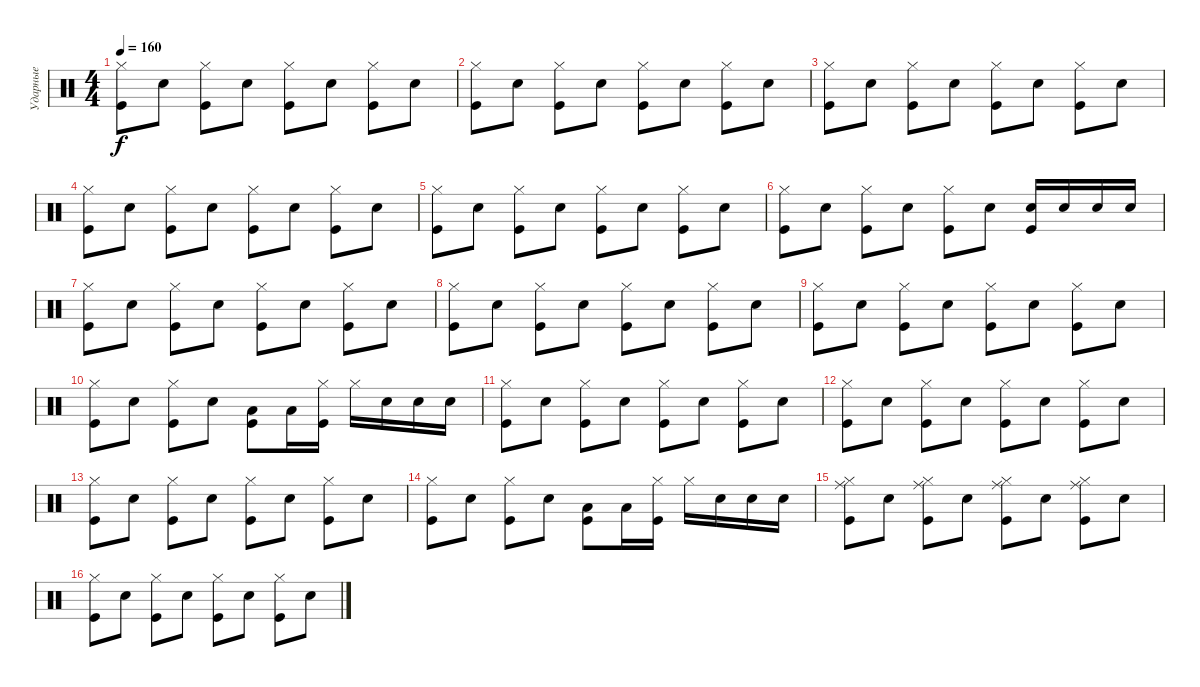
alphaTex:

\track ("Ударные" "Ударные") {instrument percussion}
\staff {score}
\articulation defaults
\ts (4 4)
\tempo 160
\clef neutral
\ks c
("Hi-Hat (closed)" "Kick (hit)").8{dy f} "Snare (hit) 2".8 ("Hi-Hat (closed)" "Kick (hit)").8 "Snare (hit) 2".8 ("Hi-Hat (closed)" "Kick (hit)").8 "Snare (hit) 2".8 ("Hi-Hat (closed)" "Kick (hit)").8 "Snare (hit) 2".8 |
("Hi-Hat (closed)" "Kick (hit)").8 "Snare (hit) 2".8 ("Hi-Hat (closed)" "Kick (hit)").8 "Snare (hit) 2".8 ("Hi-Hat (closed)" "Kick (hit)").8 "Snare (hit) 2".8 ("Hi-Hat (closed)" "Kick (hit)").8 "Snare (hit) 2".8 |
("Hi-Hat (closed)" "Kick (hit)").8 "Snare (hit) 2".8 ("Hi-Hat (closed)" "Kick (hit)").8 "Snare (hit) 2".8 ("Hi-Hat (closed)" "Kick (hit)").8 "Snare (hit) 2".8 ("Hi-Hat (closed)" "Kick (hit)").8 "Snare (hit) 2".8 |
("Hi-Hat (closed)" "Kick (hit)").8 "Snare (hit) 2".8 ("Hi-Hat (closed)" "Kick (hit)").8 "Snare (hit) 2".8 ("Hi-Hat (closed)" "Kick (hit)").8 "Snare (hit) 2".8 ("Hi-Hat (closed)" "Kick (hit)").8 "Snare (hit) 2".8 |
("Hi-Hat (closed)" "Kick (hit)").8 "Snare (hit) 2".8 ("Hi-Hat (closed)" "Kick (hit)").8 "Snare (hit) 2".8 ("Hi-Hat (closed)" "Kick (hit)").8 "Snare (hit) 2".8 ("Hi-Hat (closed)" "Kick (hit)").8 "Snare (hit) 2".8 |
("Hi-Hat (closed)" "Kick (hit)").8 "Snare (hit) 2".8 ("Hi-Hat (closed)" "Kick (hit)").8 "Snare (hit) 2".8 ("Hi-Hat (closed)" "Kick (hit)").8 "Snare (hit) 2".8 ("Electric Snare (hit)" "Kick (hit)").16 "Electric Snare (hit)".16 "Electric Snare (hit)".16 "Electric Snare (hit)".16 |
("Hi-Hat (closed)" "Kick (hit)").8 "Snare (hit) 2".8 ("Hi-Hat (closed)" "Kick (hit)").8 "Snare (hit) 2".8 ("Hi-Hat (closed)" "Kick (hit)").8 "Snare (hit) 2".8 ("Hi-Hat (closed)" "Kick (hit)").8 "Snare (hit) 2".8 |
("Hi-Hat (closed)" "Kick (hit)").8 "Snare (hit) 2".8 ("Hi-Hat (closed)" "Kick (hit)").8 "Snare (hit) 2".8 ("Hi-Hat (closed)" "Kick (hit)").8 "Snare (hit) 2".8 ("Hi-Hat (closed)" "Kick (hit)").8 "Snare (hit) 2".8 |
("Hi-Hat (closed)" "Kick (hit)").8 "Snare (hit) 2".8 ("Hi-Hat (closed)" "Kick (hit)").8 "Snare (hit) 2".8 ("Hi-Hat (closed)" "Kick (hit)").8 "Snare (hit) 2".8 ("Hi-Hat (closed)" "Kick (hit)").8 "Snare (hit) 2".8 |
("Hi-Hat (closed)" "Kick (hit)").8 "Snare (hit) 2".8 ("Hi-Hat (closed)" "Kick (hit)").8 "Snare (hit) 2".8 ("Low Tom (hit)" "Kick (hit)").8 "Low Tom (hit)".16 ("Hi-Hat (closed)" "Kick (hit)").16 "Hi-Hat (closed)".16 "Electric Snare (hit)".16 "Electric Snare (hit)".16 "Electric Snare (hit)".16 |
("Hi-Hat (closed)" "Kick (hit)").8 "Snare (hit) 2".8 ("Hi-Hat (closed)" "Kick (hit)").8 "Snare (hit) 2".8 ("Hi-Hat (closed)" "Kick (hit)").8 "Snare (hit) 2".8 ("Hi-Hat (closed)" "Kick (hit)").8 "Snare (hit) 2".8 |
("Hi-Hat (closed)" "Kick (hit)").8 "Snare (hit) 2".8 ("Hi-Hat (closed)" "Kick (hit)").8 "Snare (hit) 2".8 ("Hi-Hat (closed)" "Kick (hit)").8 "Snare (hit) 2".8 ("Hi-Hat (closed)" "Kick (hit)").8 "Snare (hit) 2".8 |
("Hi-Hat (closed)" "Kick (hit)").8 "Snare (hit) 2".8 ("Hi-Hat (closed)" "Kick (hit)").8 "Snare (hit) 2".8 ("Hi-Hat (closed)" "Kick (hit)").8 "Snare (hit) 2".8 ("Hi-Hat (closed)" "Kick (hit)").8 "Snare (hit) 2".8 |
("Hi-Hat (closed)" "Kick (hit)").8 "Snare (hit) 2".8 ("Hi-Hat (closed)" "Kick (hit)").8 "Snare (hit) 2".8 ("Low Tom (hit)" "Kick (hit)").8 "Low Tom (hit)".16 ("Hi-Hat (closed)" "Kick (hit)").16 "Hi-Hat (closed)".16 "Electric Snare (hit)".16 "Electric Snare (hit)".16 "Electric Snare (hit)".16 |
("Hi-Hat (closed)" "Kick (hit)" "Ride (middle)").8 "Snare (hit) 2".8 ("Hi-Hat (closed)" "Kick (hit)" "Ride (middle)").8 "Snare (hit) 2".8 ("Hi-Hat (closed)" "Kick (hit)" "Ride (middle)").8 "Snare (hit) 2".8 ("Hi-Hat (closed)" "Kick (hit)" "Ride (middle)").8 "Snare (hit) 2".8 |
("Hi-Hat (closed)" "Kick (hit)").8 "Snare (hit) 2".8 ("Hi-Hat (closed)" "Kick (hit)").8 "Snare (hit) 2".8 ("Hi-Hat (closed)" "Kick (hit)").8 "Snare (hit) 2".8 ("Hi-Hat (closed)" "Kick (hit)").8 "Snare (hit) 2".8
